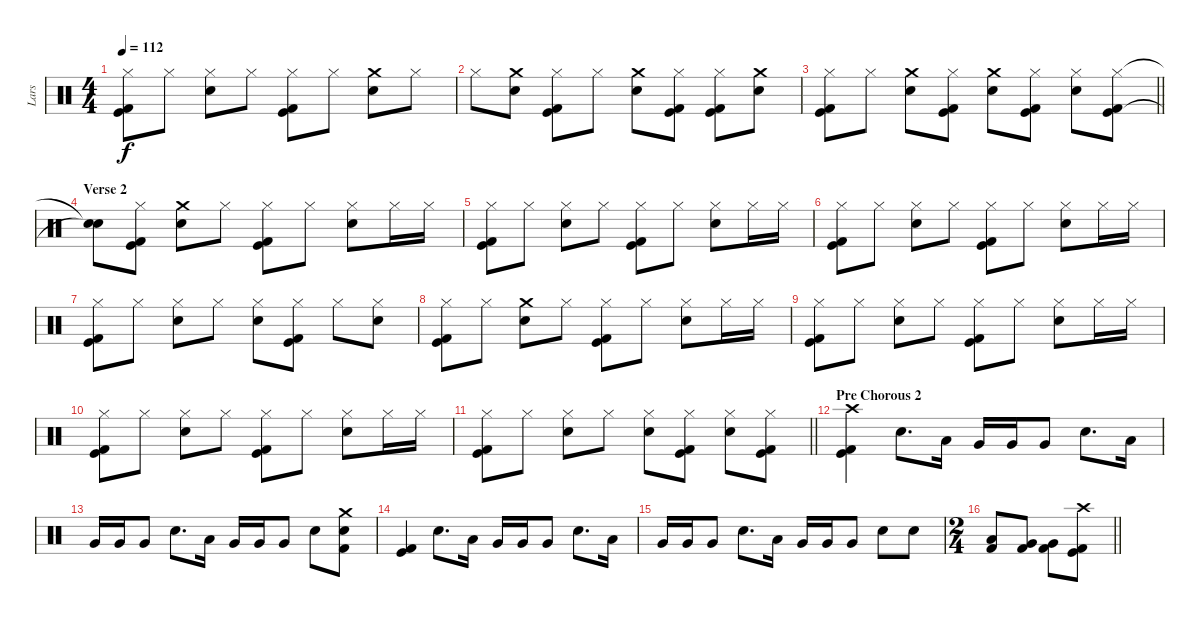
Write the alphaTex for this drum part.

\track ("Lars" "Lars") {instrument percussion}
\staff {score}
\articulation defaults
\ts (4 4)
\tempo 112
\clef neutral
\ks c
("Hi-Hat (closed)" "Kick (hit)" "Kick (hit) 2").8{dy f} "Hi-Hat (closed)".8 ("Hi-Hat (closed)" "Electric Snare (hit)").8 "Hi-Hat (closed)".8 ("Hi-Hat (closed)" "Kick (hit)" "Kick (hit) 2").8 "Hi-Hat (closed)".8 ("Crash medium (hit)" "Electric Snare (hit)").8 "Hi-Hat (closed)".8 |
"Hi-Hat (closed)".8 ("Crash medium (hit)" "Electric Snare (hit)").8 ("Hi-Hat (closed)" "Kick (hit)" "Kick (hit) 2").8 "Hi-Hat (closed)".8 ("Crash medium (hit)" "Electric Snare (hit)").8 ("Hi-Hat (closed)" "Kick (hit)" "Kick (hit) 2").8 ("Hi-Hat (closed)" "Kick (hit)" "Kick (hit) 2").8 ("Crash medium (hit)" "Electric Snare (hit)").8 |
\barLineRight lightlight
("Hi-Hat (closed)" "Kick (hit)" "Kick (hit) 2").8 "Hi-Hat (closed)".8 ("Crash medium (hit)" "Electric Snare (hit)").8 ("Hi-Hat (closed)" "Kick (hit)" "Kick (hit) 2").8 ("Crash medium (hit)" "Electric Snare (hit)").8 ("Hi-Hat (closed)" "Kick (hit)" "Kick (hit) 2").8 ("Hi-Hat (closed)" "Electric Snare (hit)").8 ("Hi-Hat (closed)" "Kick (hit)" "Kick (hit) 2").8 |
\section ("" "Verse 2")
("Snare (hit)"{t} "Snare (hit)"{t}).8 ("Hi-Hat (closed)" "Kick (hit)" "Kick (hit) 2").8 ("Crash medium (hit)" "Electric Snare (hit)").8 "Hi-Hat (closed)".8 ("Hi-Hat (closed)" "Kick (hit)" "Kick (hit) 2").8 "Hi-Hat (closed)".8 ("Hi-Hat (closed)" "Electric Snare (hit)").8 "Hi-Hat (closed)".16 "Hi-Hat (closed)".16 |
("Hi-Hat (closed)" "Kick (hit)" "Kick (hit) 2").8 "Hi-Hat (closed)".8 ("Hi-Hat (closed)" "Electric Snare (hit)").8 "Hi-Hat (closed)".8 ("Hi-Hat (closed)" "Kick (hit)" "Kick (hit) 2").8 "Hi-Hat (closed)".8 ("Hi-Hat (closed)" "Electric Snare (hit)").8 "Hi-Hat (closed)".16 "Hi-Hat (closed)".16 |
("Hi-Hat (closed)" "Kick (hit)" "Kick (hit) 2").8 "Hi-Hat (closed)".8 ("Hi-Hat (closed)" "Electric Snare (hit)").8 "Hi-Hat (closed)".8 ("Hi-Hat (closed)" "Kick (hit)" "Kick (hit) 2").8 "Hi-Hat (closed)".8 ("Hi-Hat (closed)" "Electric Snare (hit)").8 "Hi-Hat (closed)".16 "Hi-Hat (closed)".16 |
("Hi-Hat (closed)" "Kick (hit)" "Kick (hit) 2").8 "Hi-Hat (closed)".8 ("Hi-Hat (closed)" "Electric Snare (hit)").8 "Hi-Hat (closed)".8 ("Hi-Hat (closed)" "Electric Snare (hit)").8 ("Hi-Hat (closed)" "Kick (hit)" "Kick (hit) 2").8 "Hi-Hat (closed)".8 ("Hi-Hat (closed)" "Electric Snare (hit)").8 |
("Hi-Hat (closed)" "Kick (hit)" "Kick (hit) 2").8 "Hi-Hat (closed)".8 ("Crash medium (hit)" "Electric Snare (hit)").8 "Hi-Hat (closed)".8 ("Hi-Hat (closed)" "Kick (hit)" "Kick (hit) 2").8 "Hi-Hat (closed)".8 ("Hi-Hat (closed)" "Electric Snare (hit)").8 "Hi-Hat (closed)".16 "Hi-Hat (closed)".16 |
("Hi-Hat (closed)" "Kick (hit)" "Kick (hit) 2").8 "Hi-Hat (closed)".8 ("Hi-Hat (closed)" "Electric Snare (hit)").8 "Hi-Hat (closed)".8 ("Hi-Hat (closed)" "Kick (hit)" "Kick (hit) 2").8 "Hi-Hat (closed)".8 ("Hi-Hat (closed)" "Electric Snare (hit)").8 "Hi-Hat (closed)".16 "Hi-Hat (closed)".16 |
("Hi-Hat (closed)" "Kick (hit)" "Kick (hit) 2").8 "Hi-Hat (closed)".8 ("Hi-Hat (closed)" "Electric Snare (hit)").8 "Hi-Hat (closed)".8 ("Hi-Hat (closed)" "Kick (hit)" "Kick (hit) 2").8 "Hi-Hat (closed)".8 ("Hi-Hat (closed)" "Electric Snare (hit)").8 "Hi-Hat (closed)".16 "Hi-Hat (closed)".16 |
\barLineRight lightlight
("Hi-Hat (closed)" "Kick (hit)" "Kick (hit) 2").8 "Hi-Hat (closed)".8 ("Hi-Hat (closed)" "Electric Snare (hit)").8 "Hi-Hat (closed)".8 ("Hi-Hat (closed)" "Electric Snare (hit)").8 ("Hi-Hat (closed)" "Kick (hit)" "Kick (hit) 2").8 ("Hi-Hat (closed)" "Electric Snare (hit)").8 ("Hi-Hat (closed)" "Kick (hit)" "Kick (hit) 2").8 |
\section ("" "Pre Chorous 2")
("Crash high (hit)" "Kick (hit)" "Kick (hit) 2").4 "Electric Snare (hit)".8{d} "Low Tom (hit)".16 "Very Low Tom (hit)".16 "Very Low Tom (hit)".16 "Very Low Tom (hit)".8 "Electric Snare (hit)".8{d} "Low Tom (hit)".16 |
"Very Low Tom (hit)".16 "Very Low Tom (hit)".16 "Very Low Tom (hit)".8 "Electric Snare (hit)".8{d} "Low Tom (hit)".16 "Very Low Tom (hit)".16 "Very Low Tom (hit)".16 "Very Low Tom (hit)".8 "Electric Snare (hit)".8 ("Crash medium (hit)" "Electric Snare (hit)" "Kick (hit) 2").8 |
("Kick (hit)" "Kick (hit) 2").4 "Electric Snare (hit)".8{d} "Low Tom (hit)".16 "Very Low Tom (hit)".16 "Very Low Tom (hit)".16 "Very Low Tom (hit)".8 "Electric Snare (hit)".8{d} "Low Tom (hit)".16 |
"Very Low Tom (hit)".16 "Very Low Tom (hit)".16 "Very Low Tom (hit)".8 "Electric Snare (hit)".8{d} "Low Tom (hit)".16 "Very Low Tom (hit)".16 "Very Low Tom (hit)".16 "Very Low Tom (hit)".8 "Electric Snare (hit)".8 "Electric Snare (hit)".8 |
\ts (2 4)
\barLineRight lightlight
("Kick (hit) 2" "Low Tom (hit)").8 ("Kick (hit) 2" "Very Low Tom (hit)").8 ("Kick (hit) 2" "Very Low Tom (hit)").8 ("Crash high (hit)" "Kick (hit)" "Kick (hit) 2").8
